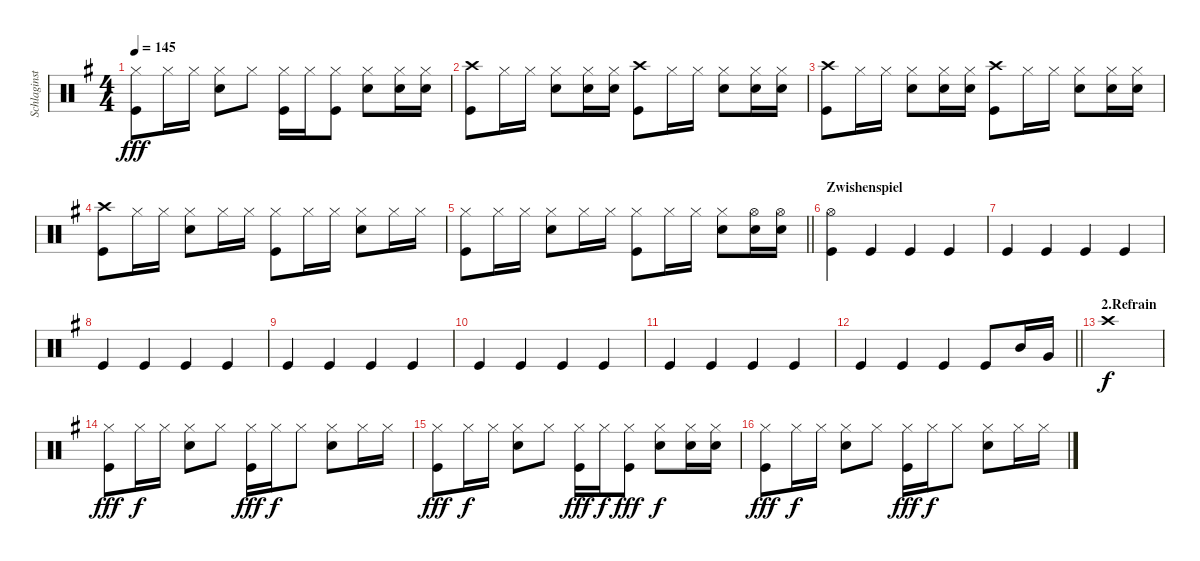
\track ("Schlaginstrumente - Auswahl" "Schlaginst") {instrument percussion}
\staff {score}
\articulation defaults
\ts (4 4)
\tempo 145
\clef neutral
\ks eminor
("Hi-Hat (closed)" "Kick (hit)").8{dy fff} "Hi-Hat (closed)".16 "Hi-Hat (closed)".16 ("Hi-Hat (closed)" "Snare (hit) 2").8 "Hi-Hat (closed)".8 ("Hi-Hat (closed)" "Kick (hit)").16 "Hi-Hat (closed)".16 ("Hi-Hat (closed)" "Kick (hit)").8 ("Hi-Hat (closed)" "Snare (hit) 2").8 ("Hi-Hat (closed)" "Snare (hit) 2").16 ("Hi-Hat (closed)" "Snare (hit) 2").16 |
("Crash high (hit)" "Kick (hit)").8 "Hi-Hat (closed)".16 "Hi-Hat (closed)".16 ("Hi-Hat (closed)" "Snare (hit) 2").8 ("Hi-Hat (closed)" "Snare (hit) 2").16 ("Hi-Hat (closed)" "Snare (hit) 2").16 ("Crash high (hit)" "Kick (hit)").8 "Hi-Hat (closed)".16 "Hi-Hat (closed)".16 ("Hi-Hat (closed)" "Snare (hit) 2").8 ("Hi-Hat (closed)" "Snare (hit) 2").16 ("Hi-Hat (closed)" "Snare (hit) 2").16 |
("Crash high (hit)" "Kick (hit)").8 "Hi-Hat (closed)".16 "Hi-Hat (closed)".16 ("Hi-Hat (closed)" "Snare (hit) 2").8 ("Hi-Hat (closed)" "Snare (hit) 2").16 ("Hi-Hat (closed)" "Snare (hit) 2").16 ("Crash high (hit)" "Kick (hit)").8 "Hi-Hat (closed)".16 "Hi-Hat (closed)".16 ("Hi-Hat (closed)" "Snare (hit) 2").8 ("Hi-Hat (closed)" "Snare (hit) 2").16 ("Hi-Hat (closed)" "Snare (hit) 2").16 |
("Crash high (hit)" "Kick (hit)").8 "Hi-Hat (closed)".16 "Hi-Hat (closed)".16 ("Hi-Hat (closed)" "Snare (hit) 2").8 "Hi-Hat (closed)".16 "Hi-Hat (closed)".16 ("Hi-Hat (closed)" "Kick (hit)").8 "Hi-Hat (closed)".16 "Hi-Hat (closed)".16 ("Hi-Hat (closed)" "Snare (hit) 2").8 "Hi-Hat (closed)".16 "Hi-Hat (closed)".16 |
\barLineRight lightlight
("Hi-Hat (closed)" "Kick (hit)").8 "Hi-Hat (closed)".16 "Hi-Hat (closed)".16 ("Hi-Hat (closed)" "Snare (hit) 2").8 "Hi-Hat (closed)".16 "Hi-Hat (closed)".16 ("Hi-Hat (closed)" "Kick (hit)").8 "Hi-Hat (closed)".16 "Hi-Hat (closed)".16 ("Hi-Hat (closed)" "Snare (hit) 2").8 ("Hi-Hat (open)" "Snare (hit) 2").16 ("Hi-Hat (open)" "Snare (hit) 2").16 |
\section ("" "Zwishenspiel")
("Hi-Hat (open)" "Kick (hit)").4 "Kick (hit)".4 "Kick (hit)".4 "Kick (hit)".4 |
"Kick (hit)".4 "Kick (hit)".4 "Kick (hit)".4 "Kick (hit)".4 |
"Kick (hit)".4 "Kick (hit)".4 "Kick (hit)".4 "Kick (hit)".4 |
"Kick (hit)".4 "Kick (hit)".4 "Kick (hit)".4 "Kick (hit)".4 |
"Kick (hit)".4 "Kick (hit)".4 "Kick (hit)".4 "Kick (hit)".4 |
"Kick (hit)".4 "Kick (hit)".4 "Kick (hit)".4 "Kick (hit)".4 |
\barLineRight lightlight "Kick (hit)".4 "Kick (hit)".4 "Kick (hit)".4 "Kick (hit)".8 "Mid Tom (hit)".16 "Very Low Tom (hit)".16
|
\section ("" "2.Refrain")
"Crash high (hit)".1{dy f} |
("Hi-Hat (closed)" "Kick (hit)").8{dy fff} "Hi-Hat (closed)".16{dy f} "Hi-Hat (closed)".16 ("Hi-Hat (closed)" "Snare (hit) 2").8 "Hi-Hat (closed)".8 ("Hi-Hat (closed)" "Kick (hit)").16{dy fff} "Hi-Hat (closed)".16{dy f} "Hi-Hat (closed)".8 ("Hi-Hat (closed)" "Snare (hit) 2").8 "Hi-Hat (closed)".16 "Hi-Hat (closed)".16 |
("Hi-Hat (closed)" "Kick (hit)").8{dy fff} "Hi-Hat (closed)".16{dy f} "Hi-Hat (closed)".16 ("Hi-Hat (closed)" "Snare (hit) 2").8 "Hi-Hat (closed)".8 ("Hi-Hat (closed)" "Kick (hit)").16{dy fff} "Hi-Hat (closed)".16{dy f} ("Hi-Hat (closed)" "Kick (hit)").8{dy fff} ("Hi-Hat (closed)" "Snare (hit) 2").8{dy f} ("Hi-Hat (closed)" "Snare (hit) 2").16 ("Hi-Hat (closed)" "Snare (hit) 2").16 |
("Hi-Hat (closed)" "Kick (hit)").8{dy fff} "Hi-Hat (closed)".16{dy f} "Hi-Hat (closed)".16 ("Hi-Hat (closed)" "Snare (hit) 2").8 "Hi-Hat (closed)".8 ("Hi-Hat (closed)" "Kick (hit)").16{dy fff} "Hi-Hat (closed)".16{dy f} "Hi-Hat (closed)".8 ("Hi-Hat (closed)" "Snare (hit) 2").8 "Hi-Hat (closed)".16 "Hi-Hat (closed)".16
